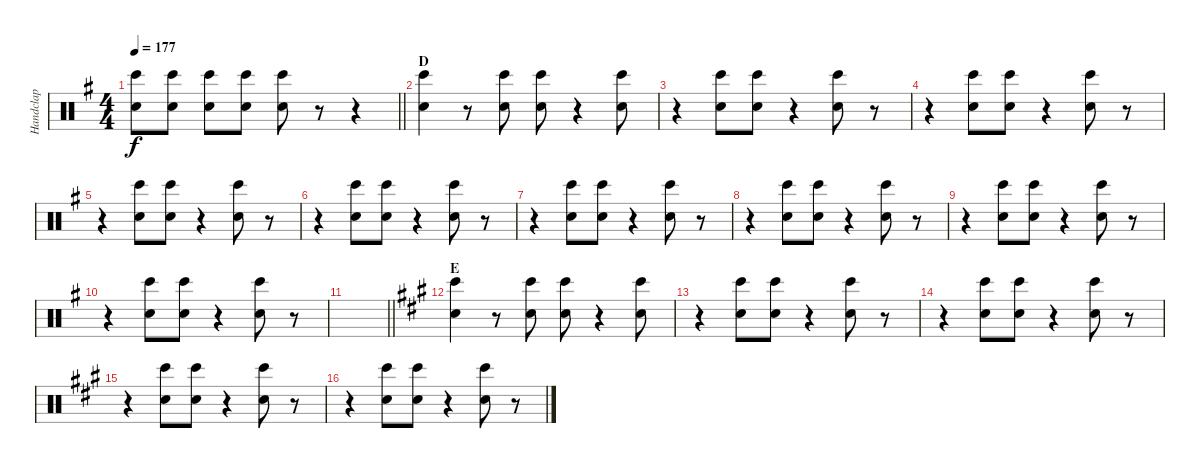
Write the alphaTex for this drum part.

\track ("Handclap" "Handclap") {instrument percussion}
\staff {score}
\articulation defaults
\ts (4 4)
\tempo 177
\clef neutral
\barLineRight lightlight
\ks g
("Hand Clap (hit)" "Bongo High (hit)").8{dy f} ("Hand Clap (hit)" "Bongo High (hit)").8 ("Hand Clap (hit)" "Bongo High (hit)").8 ("Hand Clap (hit)" "Bongo High (hit)").8 ("Hand Clap (hit)" "Bongo High (hit)").8 r.8 r.4 |
\section ("" "D")
("Hand Clap (hit)" "Bongo High (hit)").4 r.8 ("Hand Clap (hit)" "Bongo High (hit)").8 ("Hand Clap (hit)" "Bongo High (hit)").8 r.4 ("Hand Clap (hit)" "Bongo High (hit)").8 |
r.4 ("Hand Clap (hit)" "Bongo High (hit)").8 ("Hand Clap (hit)" "Bongo High (hit)").8 r.4 ("Hand Clap (hit)" "Bongo High (hit)").8 r.8 |
r.4 ("Hand Clap (hit)" "Bongo High (hit)").8 ("Hand Clap (hit)" "Bongo High (hit)").8 r.4 ("Hand Clap (hit)" "Bongo High (hit)").8 r.8 |
r.4 ("Hand Clap (hit)" "Bongo High (hit)").8 ("Hand Clap (hit)" "Bongo High (hit)").8 r.4 ("Hand Clap (hit)" "Bongo High (hit)").8 r.8 |
r.4 ("Hand Clap (hit)" "Bongo High (hit)").8 ("Hand Clap (hit)" "Bongo High (hit)").8 r.4 ("Hand Clap (hit)" "Bongo High (hit)").8 r.8 |
r.4 ("Hand Clap (hit)" "Bongo High (hit)").8 ("Hand Clap (hit)" "Bongo High (hit)").8 r.4 ("Hand Clap (hit)" "Bongo High (hit)").8 r.8 |
r.4 ("Hand Clap (hit)" "Bongo High (hit)").8 ("Hand Clap (hit)" "Bongo High (hit)").8 r.4 ("Hand Clap (hit)" "Bongo High (hit)").8 r.8 |
r.4 ("Hand Clap (hit)" "Bongo High (hit)").8 ("Hand Clap (hit)" "Bongo High (hit)").8 r.4 ("Hand Clap (hit)" "Bongo High (hit)").8 r.8 |
r.4 ("Hand Clap (hit)" "Bongo High (hit)").8 ("Hand Clap (hit)" "Bongo High (hit)").8 r.4 ("Hand Clap (hit)" "Bongo High (hit)").8 r.8 |
\barLineRight lightlight
|
\section ("" "E")
\ks a
("Hand Clap (hit)" "Bongo High (hit)").4 r.8 ("Hand Clap (hit)" "Bongo High (hit)").8 ("Hand Clap (hit)" "Bongo High (hit)").8 r.4 ("Hand Clap (hit)" "Bongo High (hit)").8 |
r.4 ("Hand Clap (hit)" "Bongo High (hit)").8 ("Hand Clap (hit)" "Bongo High (hit)").8 r.4 ("Hand Clap (hit)" "Bongo High (hit)").8 r.8 |
r.4 ("Hand Clap (hit)" "Bongo High (hit)").8 ("Hand Clap (hit)" "Bongo High (hit)").8 r.4 ("Hand Clap (hit)" "Bongo High (hit)").8 r.8 |
r.4 ("Hand Clap (hit)" "Bongo High (hit)").8 ("Hand Clap (hit)" "Bongo High (hit)").8 r.4 ("Hand Clap (hit)" "Bongo High (hit)").8 r.8 |
r.4 ("Hand Clap (hit)" "Bongo High (hit)").8 ("Hand Clap (hit)" "Bongo High (hit)").8 r.4 ("Hand Clap (hit)" "Bongo High (hit)").8 r.8
